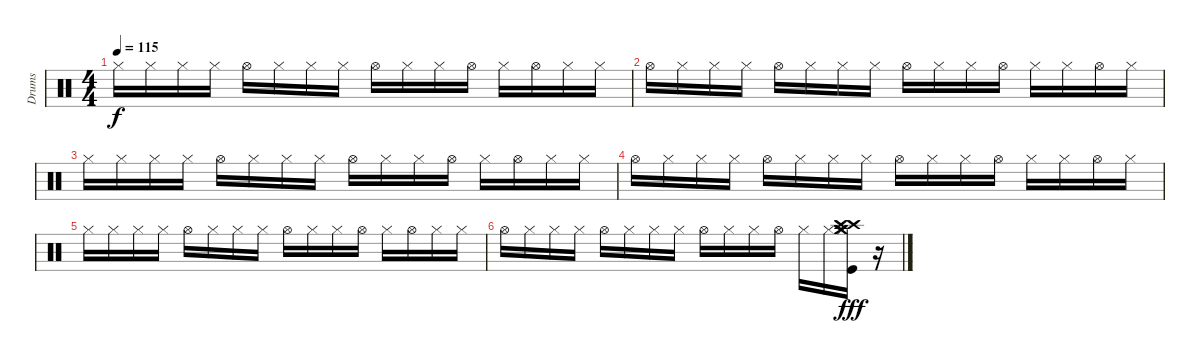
\track ("Drums" "Drums") {instrument percussion}
\staff {score}
\articulation defaults
\ts (4 4)
\tempo 115
\clef neutral
\ks c "Hi-Hat (closed)".16{dy f} "Hi-Hat (closed)".16 "Hi-Hat (closed)".16 "Hi-Hat (closed)".16 "Hi-Hat (open)".16 "Hi-Hat (closed)".16 "Hi-Hat (closed)".16 "Hi-Hat (closed)".16 "Hi-Hat (open)".16 "Hi-Hat (closed)".16 "Hi-Hat (closed)".16 "Hi-Hat (open)".16 "Hi-Hat (closed)".16 "Hi-Hat (open)".16 "Hi-Hat (closed)".16 "Hi-Hat (closed)".16
|
"Hi-Hat (open)".16 "Hi-Hat (closed)".16 "Hi-Hat (closed)".16 "Hi-Hat (closed)".16 "Hi-Hat (open)".16 "Hi-Hat (closed)".16 "Hi-Hat (closed)".16 "Hi-Hat (closed)".16 "Hi-Hat (open)".16 "Hi-Hat (closed)".16 "Hi-Hat (closed)".16 "Hi-Hat (open)".16 "Hi-Hat (closed)".16 "Hi-Hat (closed)".16 "Hi-Hat (open)".16 "Hi-Hat (closed)".16 |
"Hi-Hat (closed)".16 "Hi-Hat (closed)".16 "Hi-Hat (closed)".16 "Hi-Hat (closed)".16 "Hi-Hat (open)".16 "Hi-Hat (closed)".16 "Hi-Hat (closed)".16 "Hi-Hat (closed)".16 "Hi-Hat (open)".16 "Hi-Hat (closed)".16 "Hi-Hat (closed)".16 "Hi-Hat (open)".16 "Hi-Hat (closed)".16 "Hi-Hat (open)".16 "Hi-Hat (closed)".16 "Hi-Hat (closed)".16 |
"Hi-Hat (open)".16 "Hi-Hat (closed)".16 "Hi-Hat (closed)".16 "Hi-Hat (closed)".16 "Hi-Hat (open)".16 "Hi-Hat (closed)".16 "Hi-Hat (closed)".16 "Hi-Hat (closed)".16 "Hi-Hat (open)".16 "Hi-Hat (closed)".16 "Hi-Hat (closed)".16 "Hi-Hat (open)".16 "Hi-Hat (closed)".16 "Hi-Hat (closed)".16 "Hi-Hat (open)".16 "Hi-Hat (closed)".16 |
"Hi-Hat (closed)".16 "Hi-Hat (closed)".16 "Hi-Hat (closed)".16 "Hi-Hat (closed)".16 "Hi-Hat (open)".16 "Hi-Hat (closed)".16 "Hi-Hat (closed)".16 "Hi-Hat (closed)".16 "Hi-Hat (open)".16 "Hi-Hat (closed)".16 "Hi-Hat (closed)".16 "Hi-Hat (open)".16 "Hi-Hat (closed)".16 "Hi-Hat (open)".16 "Hi-Hat (closed)".16 "Hi-Hat (closed)".16 |
"Hi-Hat (open)".16 "Hi-Hat (closed)".16 "Hi-Hat (closed)".16 "Hi-Hat (closed)".16 "Hi-Hat (open)".16 "Hi-Hat (closed)".16 "Hi-Hat (closed)".16 "Hi-Hat (closed)".16 "Hi-Hat (open)".16 "Hi-Hat (closed)".16 "Hi-Hat (closed)".16 "Hi-Hat (open)".16 "Hi-Hat (closed)".16 "Hi-Hat (closed)".16 ("Crash high (hit)" "Hi-Hat (closed)" "Crash medium (hit)" "Crash medium (hit)" "Crash high (hit)" "Kick (hit)").16{dy fff} r.16
